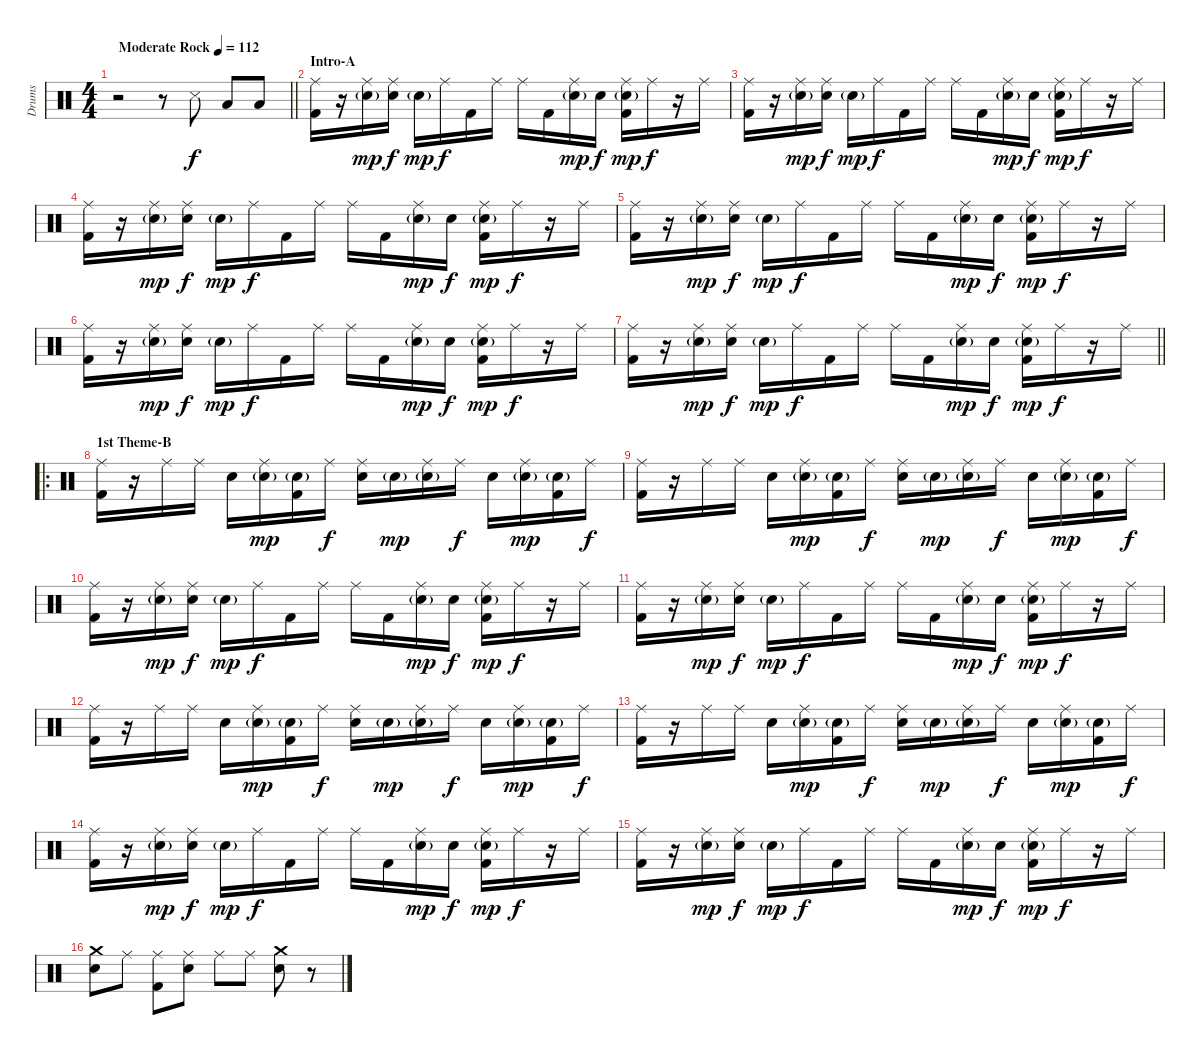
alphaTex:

\track ("Drums" "Drums") {instrument percussion}
\staff {score}
\articulation defaults
\ts (4 4)
\tempo (112 "Moderate Rock")
\clef neutral
\barLineRight lightlight
\ks c
r.2{dy f} r.8 "Snare (side stick) 3".8 "Low Tom (hit)".8 "Low Floor Tom (hit)".8 |
\section ("" "Intro-A")
("Ride (middle)" "Kick (hit) 2").16 r.16 ("Ride (middle)" "Electric Snare (hit)"{g}).16{dy mp} ("Ride (middle)" "Electric Snare (hit)").16{dy f} "Electric Snare (hit)"{g}.16{dy mp} "Ride (middle)".16{dy f} "Kick (hit) 2".16 "Ride (middle)".16 "Ride (middle)".16 "Kick (hit) 2".16 ("Ride (middle)" "Electric Snare (hit)"{g}).16{dy mp} "Electric Snare (hit)".16{dy f} ("Ride (middle)" "Electric Snare (hit)"{g} "Kick (hit) 2").16{dy mp} "Ride (middle)".16{dy f} r.16 "Ride (middle)".16 |
("Ride (middle)" "Kick (hit) 2").16 r.16 ("Ride (middle)" "Electric Snare (hit)"{g}).16{dy mp} ("Ride (middle)" "Electric Snare (hit)").16{dy f} "Electric Snare (hit)"{g}.16{dy mp} "Ride (middle)".16{dy f} "Kick (hit) 2".16 "Ride (middle)".16 "Ride (middle)".16 "Kick (hit) 2".16 ("Ride (middle)" "Electric Snare (hit)"{g}).16{dy mp} "Electric Snare (hit)".16{dy f} ("Ride (middle)" "Electric Snare (hit)"{g} "Kick (hit) 2").16{dy mp} "Ride (middle)".16{dy f} r.16 "Ride (middle)".16 |
("Ride (middle)" "Kick (hit) 2").16 r.16 ("Ride (middle)" "Electric Snare (hit)"{g}).16{dy mp} ("Ride (middle)" "Electric Snare (hit)").16{dy f} "Electric Snare (hit)"{g}.16{dy mp} "Ride (middle)".16{dy f} "Kick (hit) 2".16 "Ride (middle)".16 "Ride (middle)".16 "Kick (hit) 2".16 ("Ride (middle)" "Electric Snare (hit)"{g}).16{dy mp} "Electric Snare (hit)".16{dy f} ("Ride (middle)" "Electric Snare (hit)"{g} "Kick (hit) 2").16{dy mp} "Ride (middle)".16{dy f} r.16 "Ride (middle)".16 |
("Ride (middle)" "Kick (hit) 2").16 r.16 ("Ride (middle)" "Electric Snare (hit)"{g}).16{dy mp} ("Ride (middle)" "Electric Snare (hit)").16{dy f} "Electric Snare (hit)"{g}.16{dy mp} "Ride (middle)".16{dy f} "Kick (hit) 2".16 "Ride (middle)".16 "Ride (middle)".16 "Kick (hit) 2".16 ("Ride (middle)" "Electric Snare (hit)"{g}).16{dy mp} "Electric Snare (hit)".16{dy f} ("Ride (middle)" "Electric Snare (hit)"{g} "Kick (hit) 2").16{dy mp} "Ride (middle)".16{dy f} r.16 "Ride (middle)".16 |
("Ride (middle)" "Kick (hit) 2").16 r.16 ("Ride (middle)" "Electric Snare (hit)"{g}).16{dy mp} ("Ride (middle)" "Electric Snare (hit)").16{dy f} "Electric Snare (hit)"{g}.16{dy mp} "Ride (middle)".16{dy f} "Kick (hit) 2".16 "Ride (middle)".16 "Ride (middle)".16 "Kick (hit) 2".16 ("Ride (middle)" "Electric Snare (hit)"{g}).16{dy mp} "Electric Snare (hit)".16{dy f} ("Ride (middle)" "Electric Snare (hit)"{g} "Kick (hit) 2").16{dy mp} "Ride (middle)".16{dy f} r.16 "Ride (middle)".16 |
\barLineRight lightlight
("Ride (middle)" "Kick (hit) 2").16 r.16 ("Ride (middle)" "Electric Snare (hit)"{g}).16{dy mp} ("Ride (middle)" "Electric Snare (hit)").16{dy f} "Electric Snare (hit)"{g}.16{dy mp} "Ride (middle)".16{dy f} "Kick (hit) 2".16 "Ride (middle)".16 "Ride (middle)".16 "Kick (hit) 2".16 ("Ride (middle)" "Electric Snare (hit)"{g}).16{dy mp} "Electric Snare (hit)".16{dy f} ("Ride (middle)" "Electric Snare (hit)"{g} "Kick (hit) 2").16{dy mp} "Ride (middle)".16{dy f} r.16 "Ride (middle)".16 |
\ro
\section ("" "1st Theme-B")
("Ride (middle)" "Kick (hit) 2").16 r.16 "Ride (middle)".16 "Ride (middle)".16 "Electric Snare (hit)".16 ("Ride (middle)" "Electric Snare (hit)"{g}).16{dy mp} ("Electric Snare (hit)"{g} "Kick (hit) 2").16 "Ride (middle)".16{dy f} ("Ride (middle)" "Electric Snare (hit)").16 "Electric Snare (hit)"{g}.16{dy mp} ("Ride (middle)" "Electric Snare (hit)"{g}).16 "Ride (middle)".16{dy f} "Electric Snare (hit)".16 ("Ride (middle)" "Electric Snare (hit)"{g}).16{dy mp} ("Electric Snare (hit)"{g} "Kick (hit) 2").16 "Ride (middle)".16{dy f} |
("Ride (middle)" "Kick (hit) 2").16 r.16 "Ride (middle)".16 "Ride (middle)".16 "Electric Snare (hit)".16 ("Ride (middle)" "Electric Snare (hit)"{g}).16{dy mp} ("Electric Snare (hit)"{g} "Kick (hit) 2").16 "Ride (middle)".16{dy f} ("Ride (middle)" "Electric Snare (hit)").16 "Electric Snare (hit)"{g}.16{dy mp} ("Ride (middle)" "Electric Snare (hit)"{g}).16 "Ride (middle)".16{dy f} "Electric Snare (hit)".16 ("Ride (middle)" "Electric Snare (hit)"{g}).16{dy mp} ("Electric Snare (hit)"{g} "Kick (hit) 2").16 "Ride (middle)".16{dy f} |
("Ride (middle)" "Kick (hit) 2").16 r.16 ("Ride (middle)" "Electric Snare (hit)"{g}).16{dy mp} ("Ride (middle)" "Electric Snare (hit)").16{dy f} "Electric Snare (hit)"{g}.16{dy mp} "Ride (middle)".16{dy f} "Kick (hit) 2".16 "Ride (middle)".16 "Ride (middle)".16 "Kick (hit) 2".16 ("Ride (middle)" "Electric Snare (hit)"{g}).16{dy mp} "Electric Snare (hit)".16{dy f} ("Ride (middle)" "Electric Snare (hit)"{g} "Kick (hit) 2").16{dy mp} "Ride (middle)".16{dy f} r.16 "Ride (middle)".16 |
("Ride (middle)" "Kick (hit) 2").16 r.16 ("Ride (middle)" "Electric Snare (hit)"{g}).16{dy mp} ("Ride (middle)" "Electric Snare (hit)").16{dy f} "Electric Snare (hit)"{g}.16{dy mp} "Ride (middle)".16{dy f} "Kick (hit) 2".16 "Ride (middle)".16 "Ride (middle)".16 "Kick (hit) 2".16 ("Ride (middle)" "Electric Snare (hit)"{g}).16{dy mp} "Electric Snare (hit)".16{dy f} ("Ride (middle)" "Electric Snare (hit)"{g} "Kick (hit) 2").16{dy mp} "Ride (middle)".16{dy f} r.16 "Ride (middle)".16 |
("Ride (middle)" "Kick (hit) 2").16 r.16 "Ride (middle)".16 "Ride (middle)".16 "Electric Snare (hit)".16 ("Ride (middle)" "Electric Snare (hit)"{g}).16{dy mp} ("Electric Snare (hit)"{g} "Kick (hit) 2").16 "Ride (middle)".16{dy f} ("Ride (middle)" "Electric Snare (hit)").16 "Electric Snare (hit)"{g}.16{dy mp} ("Ride (middle)" "Electric Snare (hit)"{g}).16 "Ride (middle)".16{dy f} "Electric Snare (hit)".16 ("Ride (middle)" "Electric Snare (hit)"{g}).16{dy mp} ("Electric Snare (hit)"{g} "Kick (hit) 2").16 "Ride (middle)".16{dy f} |
("Ride (middle)" "Kick (hit) 2").16 r.16 "Ride (middle)".16 "Ride (middle)".16 "Electric Snare (hit)".16 ("Ride (middle)" "Electric Snare (hit)"{g}).16{dy mp} ("Electric Snare (hit)"{g} "Kick (hit) 2").16 "Ride (middle)".16{dy f} ("Ride (middle)" "Electric Snare (hit)").16 "Electric Snare (hit)"{g}.16{dy mp} ("Ride (middle)" "Electric Snare (hit)"{g}).16 "Ride (middle)".16{dy f} "Electric Snare (hit)".16 ("Ride (middle)" "Electric Snare (hit)"{g}).16{dy mp} ("Electric Snare (hit)"{g} "Kick (hit) 2").16 "Ride (middle)".16{dy f} |
("Ride (middle)" "Kick (hit) 2").16 r.16 ("Ride (middle)" "Electric Snare (hit)"{g}).16{dy mp} ("Ride (middle)" "Electric Snare (hit)").16{dy f} "Electric Snare (hit)"{g}.16{dy mp} "Ride (middle)".16{dy f} "Kick (hit) 2".16 "Ride (middle)".16 "Ride (middle)".16 "Kick (hit) 2".16 ("Ride (middle)" "Electric Snare (hit)"{g}).16{dy mp} "Electric Snare (hit)".16{dy f} ("Ride (middle)" "Electric Snare (hit)"{g} "Kick (hit) 2").16{dy mp} "Ride (middle)".16{dy f} r.16 "Ride (middle)".16 |
("Ride (middle)" "Kick (hit) 2").16 r.16 ("Ride (middle)" "Electric Snare (hit)"{g}).16{dy mp} ("Ride (middle)" "Electric Snare (hit)").16{dy f} "Electric Snare (hit)"{g}.16{dy mp} "Ride (middle)".16{dy f} "Kick (hit) 2".16 "Ride (middle)".16 "Ride (middle)".16 "Kick (hit) 2".16 ("Ride (middle)" "Electric Snare (hit)"{g}).16{dy mp} "Electric Snare (hit)".16{dy f} ("Ride (middle)" "Electric Snare (hit)"{g} "Kick (hit) 2").16{dy mp} "Ride (middle)".16{dy f} r.16 "Ride (middle)".16 |
("Crash medium (hit)" "Electric Snare (hit)").8 "Ride (middle)".8 ("Ride (middle)" "Kick (hit) 2").8 ("Ride (middle)" "Electric Snare (hit)").8 "Ride (middle)".8 "Ride (middle)".8 ("Crash medium (hit)" "Electric Snare (hit)").8 r.8
